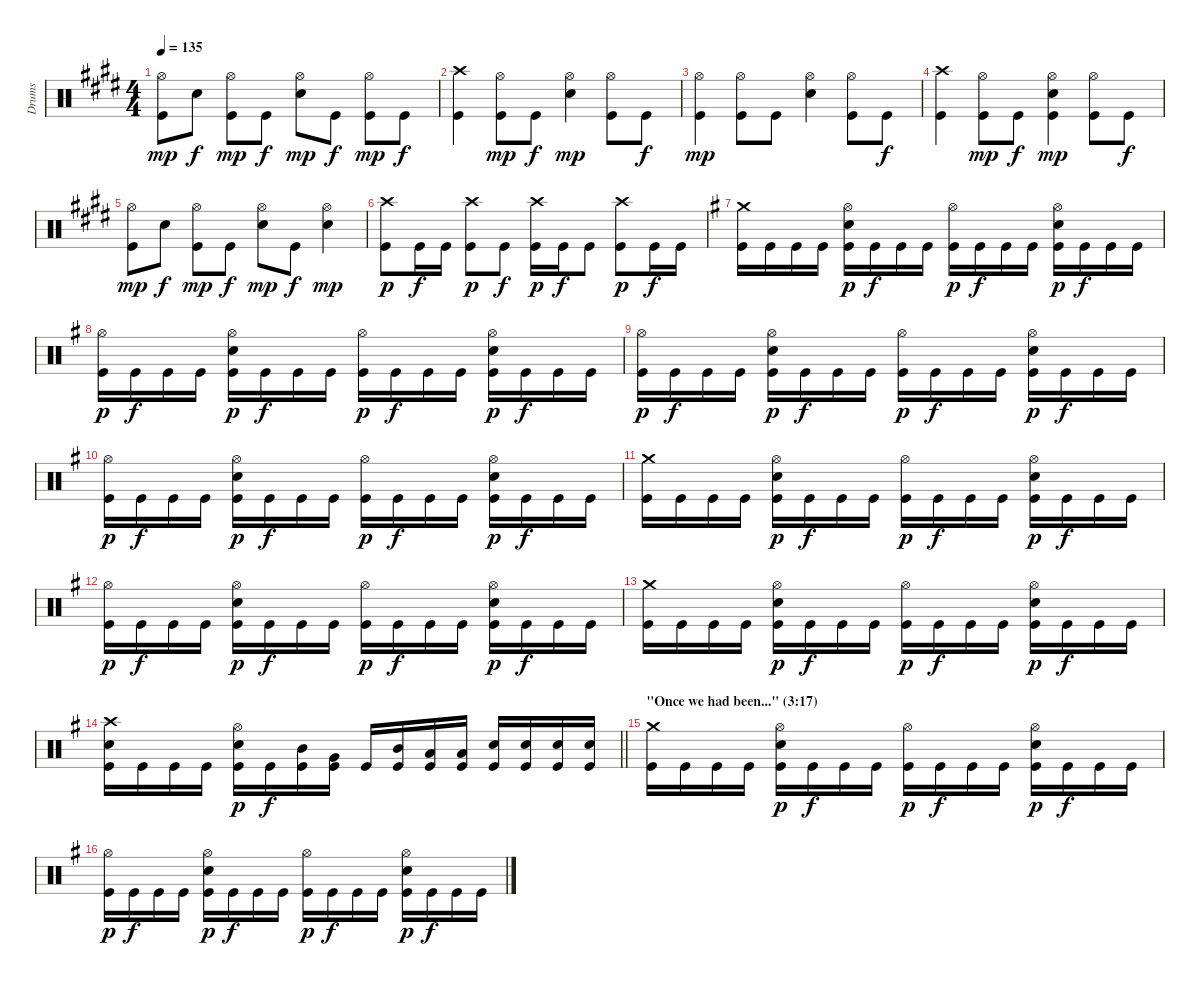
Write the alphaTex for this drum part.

\track ("Drums" "Drums") {instrument percussion}
\staff {score}
\articulation defaults
\ts (4 4)
\tempo 135
\clef neutral
\ks c#minor
("Hi-Hat (open)" "Kick (hit)").8{dy mp} "Snare (hit) 2".8{dy f} ("Hi-Hat (open)" "Kick (hit)").8{dy mp} "Kick (hit)".8{dy f} ("Hi-Hat (open)" "Snare (hit) 2").8{dy mp} "Kick (hit)".8{dy f} ("Hi-Hat (open)" "Kick (hit)").8{dy mp} "Kick (hit)".8{dy f} |
("Crash high (hit)" "Kick (hit)").4 ("Hi-Hat (open)" "Kick (hit)").8{dy mp} "Kick (hit)".8{dy f} ("Hi-Hat (open)" "Snare (hit) 2").4{dy mp} ("Hi-Hat (open)" "Kick (hit)").8 "Kick (hit)".8{dy f} |
("Hi-Hat (open)" "Kick (hit)").4{dy mp} ("Hi-Hat (open)" "Kick (hit)").8 "Kick (hit)".8 ("Hi-Hat (open)" "Snare (hit) 2").4 ("Hi-Hat (open)" "Kick (hit)").8 "Kick (hit)".8{dy f} |
("Crash high (hit)" "Kick (hit)").4 ("Hi-Hat (open)" "Kick (hit)").8{dy mp} "Kick (hit)".8{dy f} ("Hi-Hat (open)" "Snare (hit) 2" "Kick (hit)").4{dy mp} ("Hi-Hat (open)" "Kick (hit)").8 "Kick (hit)".8{dy f} |
("Hi-Hat (open)" "Kick (hit)").8{dy mp} "Snare (hit) 2".8{dy f} ("Hi-Hat (open)" "Kick (hit)").8{dy mp} "Kick (hit)".8{dy f} ("Hi-Hat (open)" "Snare (hit) 2").8{dy mp} "Kick (hit)".8{dy f} ("Hi-Hat (open)" "Snare (hit) 2").4{dy mp} |
("Crash high (hit)" "Kick (hit)").8{dy p} "Kick (hit)".16{dy f} "Kick (hit)".16 ("Crash high (hit)" "Kick (hit)").8{dy p} "Kick (hit)".8{dy f} ("Crash high (hit)" "Kick (hit)").16{dy p} "Kick (hit)".16{dy f} "Kick (hit)".8 ("Crash high (hit)" "Kick (hit)").8{dy p} "Kick (hit)".16{dy f} "Kick (hit)".16 |
\ks eminor
("Crash medium (hit)" "Kick (hit)").16 "Kick (hit)".16 "Kick (hit)".16 "Kick (hit)".16 ("Hi-Hat (open)" "Snare (hit) 2" "Kick (hit)").16{dy p} "Kick (hit)".16{dy f} "Kick (hit)".16 "Kick (hit)".16 ("Hi-Hat (open)" "Kick (hit)").16{dy p} "Kick (hit)".16{dy f} "Kick (hit)".16 "Kick (hit)".16 ("Hi-Hat (open)" "Snare (hit) 2" "Kick (hit)").16{dy p} "Kick (hit)".16{dy f} "Kick (hit)".16 "Kick (hit)".16 |
("Hi-Hat (open)" "Kick (hit)").16{dy p} "Kick (hit)".16{dy f} "Kick (hit)".16 "Kick (hit)".16 ("Hi-Hat (open)" "Snare (hit) 2" "Kick (hit)").16{dy p} "Kick (hit)".16{dy f} "Kick (hit)".16 "Kick (hit)".16 ("Hi-Hat (open)" "Kick (hit)").16{dy p} "Kick (hit)".16{dy f} "Kick (hit)".16 "Kick (hit)".16 ("Hi-Hat (open)" "Snare (hit) 2" "Kick (hit)").16{dy p} "Kick (hit)".16{dy f} "Kick (hit)".16 "Kick (hit)".16 |
("Hi-Hat (open)" "Kick (hit)").16{dy p} "Kick (hit)".16{dy f} "Kick (hit)".16 "Kick (hit)".16 ("Hi-Hat (open)" "Snare (hit) 2" "Kick (hit)").16{dy p} "Kick (hit)".16{dy f} "Kick (hit)".16 "Kick (hit)".16 ("Hi-Hat (open)" "Kick (hit)").16{dy p} "Kick (hit)".16{dy f} "Kick (hit)".16 "Kick (hit)".16 ("Hi-Hat (open)" "Snare (hit) 2" "Kick (hit)").16{dy p} "Kick (hit)".16{dy f} "Kick (hit)".16 "Kick (hit)".16 |
("Hi-Hat (open)" "Kick (hit)").16{dy p} "Kick (hit)".16{dy f} "Kick (hit)".16 "Kick (hit)".16 ("Hi-Hat (open)" "Snare (hit) 2" "Kick (hit)").16{dy p} "Kick (hit)".16{dy f} "Kick (hit)".16 "Kick (hit)".16 ("Hi-Hat (open)" "Kick (hit)").16{dy p} "Kick (hit)".16{dy f} "Kick (hit)".16 "Kick (hit)".16 ("Hi-Hat (open)" "Snare (hit) 2" "Kick (hit)").16{dy p} "Kick (hit)".16{dy f} "Kick (hit)".16 "Kick (hit)".16 |
("Crash medium (hit)" "Kick (hit)").16 "Kick (hit)".16 "Kick (hit)".16 "Kick (hit)".16 ("Hi-Hat (open)" "Snare (hit) 2" "Kick (hit)").16{dy p} "Kick (hit)".16{dy f} "Kick (hit)".16 "Kick (hit)".16 ("Hi-Hat (open)" "Kick (hit)").16{dy p} "Kick (hit)".16{dy f} "Kick (hit)".16 "Kick (hit)".16 ("Hi-Hat (open)" "Snare (hit) 2" "Kick (hit)").16{dy p} "Kick (hit)".16{dy f} "Kick (hit)".16 "Kick (hit)".16 |
("Hi-Hat (open)" "Kick (hit)").16{dy p} "Kick (hit)".16{dy f} "Kick (hit)".16 "Kick (hit)".16 ("Hi-Hat (open)" "Snare (hit) 2" "Kick (hit)").16{dy p} "Kick (hit)".16{dy f} "Kick (hit)".16 "Kick (hit)".16 ("Hi-Hat (open)" "Kick (hit)").16{dy p} "Kick (hit)".16{dy f} "Kick (hit)".16 "Kick (hit)".16 ("Hi-Hat (open)" "Snare (hit) 2" "Kick (hit)").16{dy p} "Kick (hit)".16{dy f} "Kick (hit)".16 "Kick (hit)".16 |
("Crash medium (hit)" "Kick (hit)").16 "Kick (hit)".16 "Kick (hit)".16 "Kick (hit)".16 ("Hi-Hat (open)" "Snare (hit) 2" "Kick (hit)").16{dy p} "Kick (hit)".16{dy f} "Kick (hit)".16 "Kick (hit)".16 ("Hi-Hat (open)" "Kick (hit)").16{dy p} "Kick (hit)".16{dy f} "Kick (hit)".16 "Kick (hit)".16 ("Hi-Hat (open)" "Snare (hit) 2" "Kick (hit)").16{dy p} "Kick (hit)".16{dy f} "Kick (hit)".16 "Kick (hit)".16 |
\barLineRight lightlight
("Crash high (hit)" "Snare (hit) 2" "Kick (hit)").16 "Kick (hit)".16 "Kick (hit)".16 "Kick (hit)".16 ("Hi-Hat (open)" "Snare (hit) 2" "Kick (hit)").16{dy p} "Kick (hit)".16{dy f} ("Mid Tom (hit)" "Kick (hit)").16 ("Very Low Tom (hit)" "Kick (hit)").16 "Kick (hit)".16 ("Mid Tom (hit)" "Kick (hit)").16 ("Low Tom (hit)" "Kick (hit)").16 ("Low Floor Tom (hit)" "Kick (hit)").16 ("Snare (hit) 2" "Kick (hit)").16 ("Snare (hit) 2" "Kick (hit)").16 ("Snare (hit) 2" "Kick (hit)").16 ("Snare (hit) 2" "Kick (hit)").16 |
\section ("" "\"Once we had been...\" (3:17)")
("Crash medium (hit)" "Kick (hit)").16 "Kick (hit)".16 "Kick (hit)".16 "Kick (hit)".16 ("Hi-Hat (open)" "Snare (hit) 2" "Kick (hit)").16{dy p} "Kick (hit)".16{dy f} "Kick (hit)".16 "Kick (hit)".16 ("Hi-Hat (open)" "Kick (hit)").16{dy p} "Kick (hit)".16{dy f} "Kick (hit)".16 "Kick (hit)".16 ("Hi-Hat (open)" "Snare (hit) 2" "Kick (hit)").16{dy p} "Kick (hit)".16{dy f} "Kick (hit)".16 "Kick (hit)".16 |
("Hi-Hat (open)" "Kick (hit)").16{dy p} "Kick (hit)".16{dy f} "Kick (hit)".16 "Kick (hit)".16 ("Hi-Hat (open)" "Snare (hit) 2" "Kick (hit)").16{dy p} "Kick (hit)".16{dy f} "Kick (hit)".16 "Kick (hit)".16 ("Hi-Hat (open)" "Kick (hit)").16{dy p} "Kick (hit)".16{dy f} "Kick (hit)".16 "Kick (hit)".16 ("Hi-Hat (open)" "Snare (hit) 2" "Kick (hit)").16{dy p} "Kick (hit)".16{dy f} "Kick (hit)".16 "Kick (hit)".16
